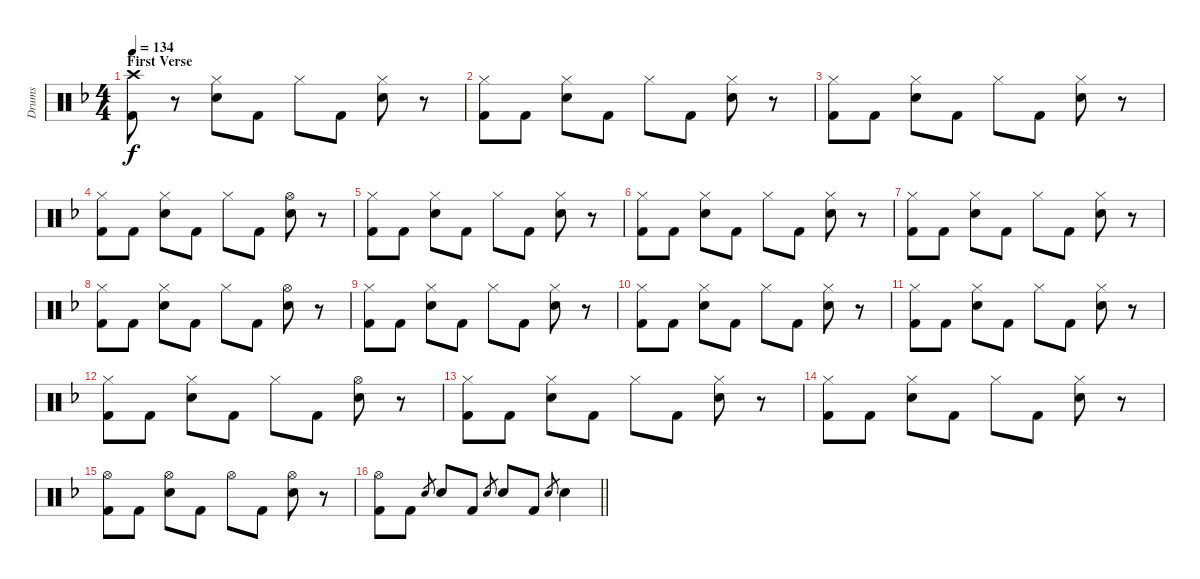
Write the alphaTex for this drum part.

\track ("Drums" "Drums") {instrument percussion}
\staff {score}
\articulation defaults
\ts (4 4)
\section ("" "First Verse")
\tempo 134
\clef neutral
\ks f
("Crash high (hit)" "Kick (hit) 2").8{dy f} r.8 ("Hi-Hat (closed)" "Electric Snare (hit)").8 "Kick (hit) 2".8 "Hi-Hat (closed)".8 "Kick (hit) 2".8 ("Hi-Hat (closed)" "Electric Snare (hit)").8 r.8 |
("Hi-Hat (closed)" "Kick (hit) 2").8 "Kick (hit) 2".8 ("Hi-Hat (closed)" "Electric Snare (hit)").8 "Kick (hit) 2".8 "Hi-Hat (closed)".8 "Kick (hit) 2".8 ("Hi-Hat (closed)" "Electric Snare (hit)").8 r.8 |
("Hi-Hat (closed)" "Kick (hit) 2").8 "Kick (hit) 2".8 ("Hi-Hat (closed)" "Electric Snare (hit)").8 "Kick (hit) 2".8 "Hi-Hat (closed)".8 "Kick (hit) 2".8 ("Hi-Hat (closed)" "Electric Snare (hit)").8 r.8 |
("Hi-Hat (closed)" "Kick (hit) 2").8 "Kick (hit) 2".8 ("Hi-Hat (closed)" "Electric Snare (hit)").8 "Kick (hit) 2".8 "Hi-Hat (closed)".8 "Kick (hit) 2".8 ("Hi-Hat (open)" "Electric Snare (hit)").8 r.8 |
("Hi-Hat (closed)" "Kick (hit) 2").8 "Kick (hit) 2".8 ("Hi-Hat (closed)" "Electric Snare (hit)").8 "Kick (hit) 2".8 "Hi-Hat (closed)".8 "Kick (hit) 2".8 ("Hi-Hat (closed)" "Electric Snare (hit)").8 r.8 |
("Hi-Hat (closed)" "Kick (hit) 2").8 "Kick (hit) 2".8 ("Hi-Hat (closed)" "Electric Snare (hit)").8 "Kick (hit) 2".8 "Hi-Hat (closed)".8 "Kick (hit) 2".8 ("Hi-Hat (closed)" "Electric Snare (hit)").8 r.8 |
("Hi-Hat (closed)" "Kick (hit) 2").8 "Kick (hit) 2".8 ("Hi-Hat (closed)" "Electric Snare (hit)").8 "Kick (hit) 2".8 "Hi-Hat (closed)".8 "Kick (hit) 2".8 ("Hi-Hat (closed)" "Electric Snare (hit)").8 r.8 |
("Hi-Hat (closed)" "Kick (hit) 2").8 "Kick (hit) 2".8 ("Hi-Hat (closed)" "Electric Snare (hit)").8 "Kick (hit) 2".8 "Hi-Hat (closed)".8 "Kick (hit) 2".8 ("Hi-Hat (open)" "Electric Snare (hit)").8 r.8 |
("Hi-Hat (closed)" "Kick (hit) 2").8 "Kick (hit) 2".8 ("Hi-Hat (closed)" "Electric Snare (hit)").8 "Kick (hit) 2".8 "Hi-Hat (closed)".8 "Kick (hit) 2".8 ("Hi-Hat (closed)" "Electric Snare (hit)").8 r.8 |
("Hi-Hat (closed)" "Kick (hit) 2").8 "Kick (hit) 2".8 ("Hi-Hat (closed)" "Electric Snare (hit)").8 "Kick (hit) 2".8 "Hi-Hat (closed)".8 "Kick (hit) 2".8 ("Hi-Hat (closed)" "Electric Snare (hit)").8 r.8 |
("Hi-Hat (closed)" "Kick (hit) 2").8 "Kick (hit) 2".8 ("Hi-Hat (closed)" "Electric Snare (hit)").8 "Kick (hit) 2".8 "Hi-Hat (closed)".8 "Kick (hit) 2".8 ("Hi-Hat (closed)" "Electric Snare (hit)").8 r.8 |
("Hi-Hat (closed)" "Kick (hit) 2").8 "Kick (hit) 2".8 ("Hi-Hat (closed)" "Electric Snare (hit)").8 "Kick (hit) 2".8 "Hi-Hat (closed)".8 "Kick (hit) 2".8 ("Hi-Hat (open)" "Electric Snare (hit)").8 r.8 |
("Hi-Hat (closed)" "Kick (hit) 2").8 "Kick (hit) 2".8 ("Hi-Hat (closed)" "Electric Snare (hit)").8 "Kick (hit) 2".8 "Hi-Hat (closed)".8 "Kick (hit) 2".8 ("Hi-Hat (closed)" "Electric Snare (hit)").8 r.8 |
("Hi-Hat (closed)" "Kick (hit) 2").8 "Kick (hit) 2".8 ("Hi-Hat (closed)" "Electric Snare (hit)").8 "Kick (hit) 2".8 "Hi-Hat (closed)".8 "Kick (hit) 2".8 ("Hi-Hat (closed)" "Electric Snare (hit)").8 r.8 |
("Hi-Hat (open)" "Kick (hit) 2").8 "Kick (hit) 2".8 ("Hi-Hat (open)" "Electric Snare (hit)").8 "Kick (hit) 2".8 "Hi-Hat (open)".8 "Kick (hit) 2".8 ("Hi-Hat (open)" "Electric Snare (hit)").8 r.8 |
\barLineRight lightlight
("Hi-Hat (open)" "Kick (hit) 2").8 "Kick (hit) 2".8 "Electric Snare (hit)".8{gr} "Electric Snare (hit)".8 "Kick (hit) 2".8 "Electric Snare (hit)".8{gr} "Electric Snare (hit)".8 "Kick (hit) 2".8 "Electric Snare (hit)".8{gr} "Electric Snare (hit)".4
